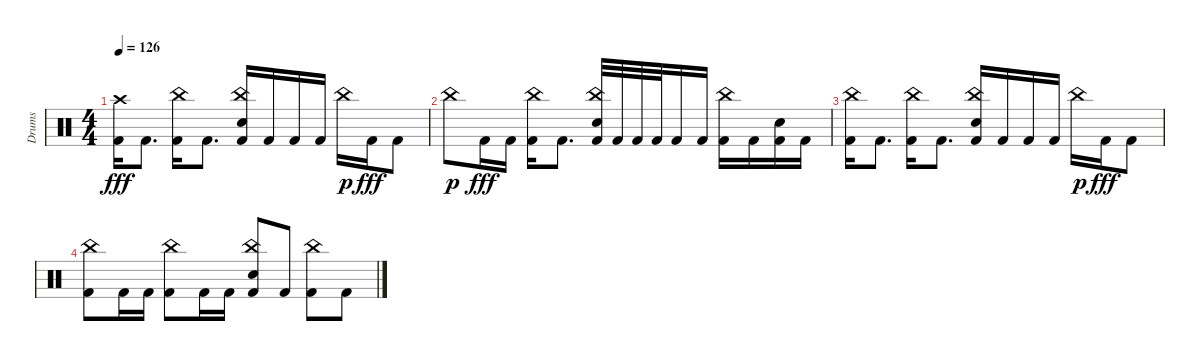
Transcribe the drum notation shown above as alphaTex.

\track ("Drums" "Drums") {instrument percussion}
\staff {score}
\articulation defaults
\ts (4 4)
\tempo 126
\clef neutral
\ks c
("Crash high (hit)" "Kick (hit) 2").16{dy fff} "Kick (hit) 2".8{d} ("China (hit)" "Kick (hit) 2").16 "Kick (hit) 2".8{d} ("China (hit)" "Snare (hit) 2" "Kick (hit) 2").16 "Kick (hit) 2".16 "Kick (hit) 2".16 "Kick (hit) 2".16 "China (hit)".16{dy p} "Kick (hit) 2".16{dy fff} "Kick (hit) 2".8 |
"China (hit)".8{dy p} "Kick (hit) 2".16{dy fff} "Kick (hit) 2".16 ("China (hit)" "Kick (hit) 2").16 "Kick (hit) 2".8{d} ("China (hit)" "Snare (hit) 2" "Kick (hit) 2").32 "Kick (hit) 2".32 "Kick (hit) 2".32 "Kick (hit) 2".32 "Kick (hit) 2".16 "Kick (hit) 2".16 ("China (hit)" "Kick (hit) 2").16 "Kick (hit) 2".16 ("Snare (hit) 2" "Kick (hit) 2").16 "Kick (hit) 2".16 |
("China (hit)" "Kick (hit) 2").16 "Kick (hit) 2".8{d} ("China (hit)" "Kick (hit) 2").16 "Kick (hit) 2".8{d} ("China (hit)" "Snare (hit) 2" "Kick (hit) 2").16 "Kick (hit) 2".16 "Kick (hit) 2".16 "Kick (hit) 2".16 "China (hit)".16{dy p} "Kick (hit) 2".16{dy fff} "Kick (hit) 2".8 |
("China (hit)" "Kick (hit) 2").8 "Kick (hit) 2".16 "Kick (hit) 2".16 ("China (hit)" "Kick (hit) 2").8 "Kick (hit) 2".16 "Kick (hit) 2".16 ("China (hit)" "Snare (hit) 2" "Kick (hit) 2").8 "Kick (hit) 2".8 ("China (hit)" "Kick (hit) 2").8 "Kick (hit) 2".8
